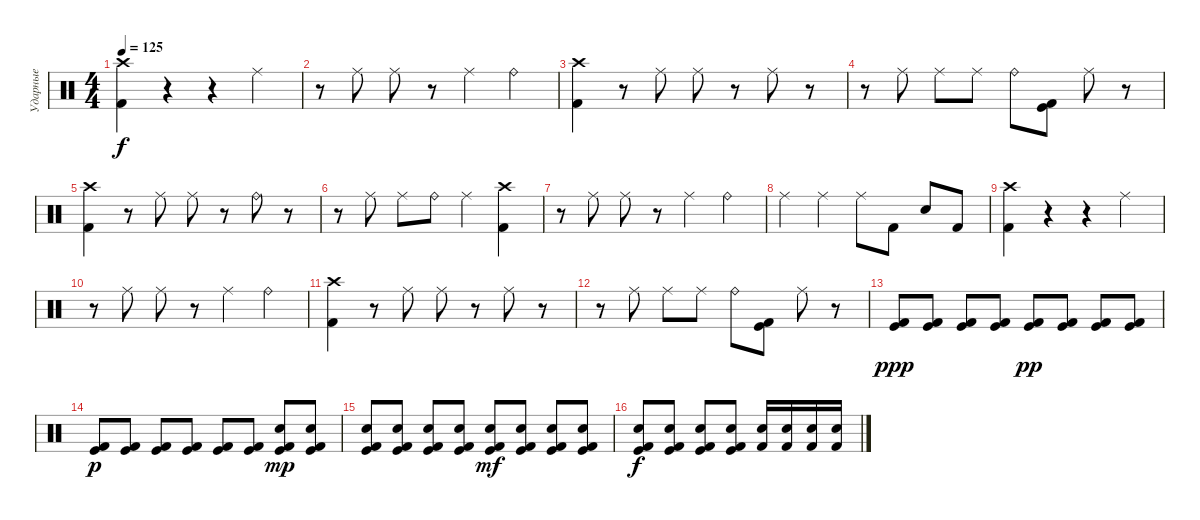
\track ("Ударные" "Ударные") {instrument percussion}
\staff {score}
\articulation defaults
\ts (4 4)
\tempo 125
\clef neutral
\ks c
("Crash high (hit)" "Kick (hit) 2").4{dy f} r.4 r.4 "Ride (middle)".4 |
r.8 "Ride (middle)".8 "Ride (middle)".8 r.8 "Ride (middle)".4 "Ride (bell)".4 |
("Crash high (hit)" "Kick (hit) 2").4 r.8 "Ride (middle)".8 "Ride (middle)".8 r.8 "Ride (middle)".8 r.8 |
r.8 "Ride (middle)".8 "Ride (middle)".8 "Ride (middle)".8 "Ride (bell)".8 ("Kick (hit)" "Kick (hit) 2").8 "Ride (middle)".8 r.8 |
("Crash high (hit)" "Kick (hit) 2").4 r.8 "Ride (middle)".8 "Ride (middle)".8 r.8 "Ride (bell)".8 r.8 |
r.8 "Ride (middle)".8 "Ride (middle)".8 "Ride (bell)".8 "Ride (middle)".4 ("Crash high (hit)" "Kick (hit) 2").4 |
r.8 "Ride (middle)".8 "Ride (middle)".8 r.8 "Ride (middle)".4 "Ride (bell)".4 |
"Ride (middle)".4 "Ride (middle)".4 "Ride (middle)".8 "Kick (hit) 2".8 "Electric Snare (hit)".8 "Kick (hit) 2".8 |
("Crash high (hit)" "Kick (hit) 2").4 r.4 r.4 "Ride (middle)".4 |
r.8 "Ride (middle)".8 "Ride (middle)".8 r.8 "Ride (middle)".4 "Ride (bell)".4 |
("Crash high (hit)" "Kick (hit) 2").4 r.8 "Ride (middle)".8 "Ride (middle)".8 r.8 "Ride (middle)".8 r.8 |
r.8 "Ride (middle)".8 "Ride (middle)".8 "Ride (middle)".8 "Ride (bell)".8 ("Kick (hit)" "Kick (hit) 2").8 "Ride (middle)".8 r.8 |
("Kick (hit)" "Kick (hit) 2").8{dy ppp} ("Kick (hit)" "Kick (hit) 2").8 ("Kick (hit)" "Kick (hit) 2").8 ("Kick (hit)" "Kick (hit) 2").8 ("Kick (hit)" "Kick (hit) 2").8{dy pp} ("Kick (hit)" "Kick (hit) 2").8 ("Kick (hit)" "Kick (hit) 2").8 ("Kick (hit)" "Kick (hit) 2").8 |
("Kick (hit)" "Kick (hit) 2").8{dy p} ("Kick (hit)" "Kick (hit) 2").8 ("Kick (hit)" "Kick (hit) 2").8 ("Kick (hit)" "Kick (hit) 2").8 ("Kick (hit)" "Kick (hit) 2").8 ("Kick (hit)" "Kick (hit) 2").8 ("Electric Snare (hit)" "Kick (hit)" "Kick (hit) 2").8{dy mp} ("Electric Snare (hit)" "Kick (hit)" "Kick (hit) 2").8 |
("Electric Snare (hit)" "Kick (hit)" "Kick (hit) 2").8 ("Electric Snare (hit)" "Kick (hit)" "Kick (hit) 2").8 ("Electric Snare (hit)" "Kick (hit)" "Kick (hit) 2").8 ("Electric Snare (hit)" "Kick (hit)" "Kick (hit) 2").8 ("Electric Snare (hit)" "Kick (hit)" "Kick (hit) 2").8{dy mf} ("Electric Snare (hit)" "Kick (hit)" "Kick (hit) 2").8 ("Electric Snare (hit)" "Kick (hit)" "Kick (hit) 2").8 ("Electric Snare (hit)" "Kick (hit)" "Kick (hit) 2").8 |
("Electric Snare (hit)" "Kick (hit)" "Kick (hit) 2").8{dy f} ("Electric Snare (hit)" "Kick (hit)" "Kick (hit) 2").8 ("Electric Snare (hit)" "Kick (hit)" "Kick (hit) 2").8 ("Electric Snare (hit)" "Kick (hit)" "Kick (hit) 2").8 ("Electric Snare (hit)" "Kick (hit) 2").16 ("Electric Snare (hit)" "Kick (hit) 2").16 ("Electric Snare (hit)" "Kick (hit) 2").16 ("Electric Snare (hit)" "Kick (hit) 2").16
